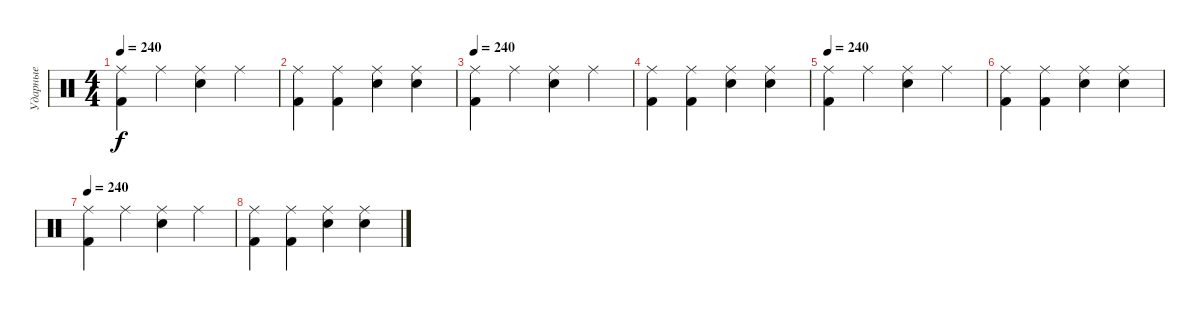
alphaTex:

\track ("Ударные" "Ударные") {instrument percussion}
\staff {score}
\articulation defaults
\ts (4 4)
\tempo 240
\clef neutral
\ks c
("Ride (middle)" "Kick (hit) 2").4{dy f} "Ride (middle)".4 ("Ride (middle)" "Electric Snare (hit)").4 "Ride (middle)".4 |
("Ride (middle)" "Kick (hit) 2").4 ("Ride (middle)" "Kick (hit) 2").4 ("Ride (middle)" "Electric Snare (hit)").4 ("Ride (middle)" "Electric Snare (hit)").4 |
\tempo 240
("Ride (middle)" "Kick (hit) 2").4 "Ride (middle)".4 ("Ride (middle)" "Electric Snare (hit)").4 "Ride (middle)".4 |
("Ride (middle)" "Kick (hit) 2").4 ("Ride (middle)" "Kick (hit) 2").4 ("Ride (middle)" "Electric Snare (hit)").4 ("Ride (middle)" "Electric Snare (hit)").4 |
\tempo 240
("Ride (middle)" "Kick (hit) 2").4 "Ride (middle)".4 ("Ride (middle)" "Electric Snare (hit)").4 "Ride (middle)".4 |
("Ride (middle)" "Kick (hit) 2").4 ("Ride (middle)" "Kick (hit) 2").4 ("Ride (middle)" "Electric Snare (hit)").4 ("Ride (middle)" "Electric Snare (hit)").4 |
\tempo 240
("Ride (middle)" "Kick (hit) 2").4 "Ride (middle)".4 ("Ride (middle)" "Electric Snare (hit)").4 "Ride (middle)".4 |
("Ride (middle)" "Kick (hit) 2").4 ("Ride (middle)" "Kick (hit) 2").4 ("Ride (middle)" "Electric Snare (hit)").4 ("Ride (middle)" "Electric Snare (hit)").4
